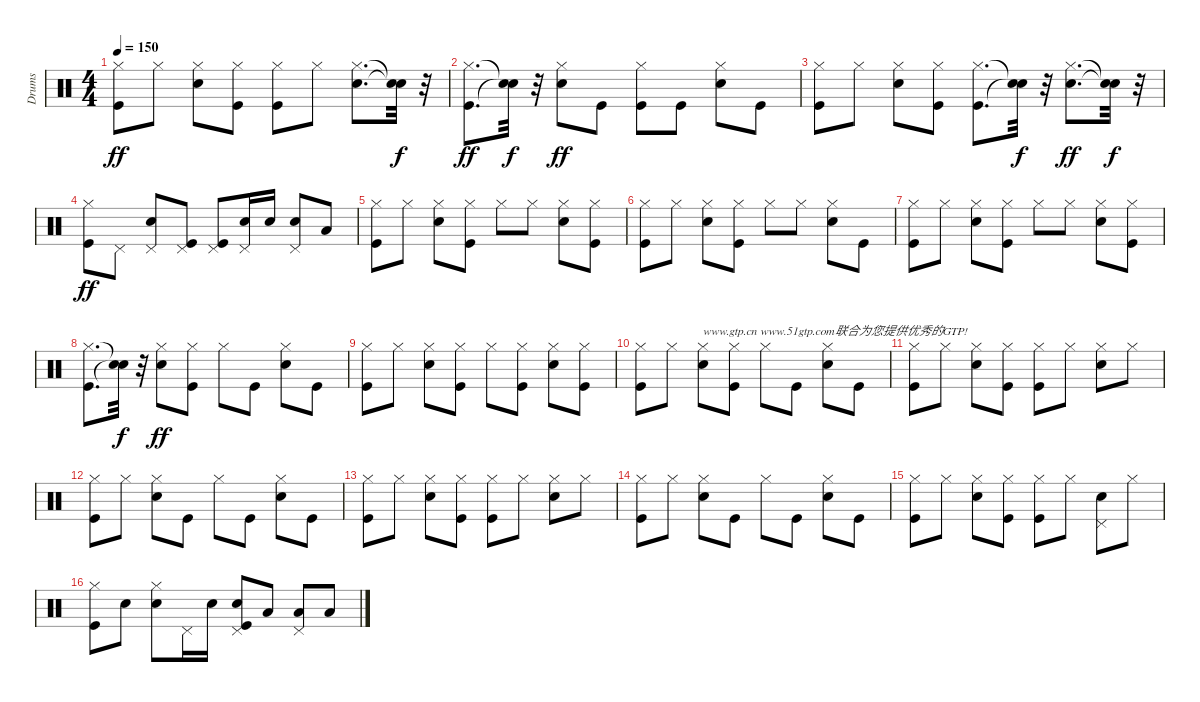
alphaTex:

\track ("Drums" "Drums") {instrument percussion}
\staff {score}
\articulation defaults
\ts (4 4)
\tempo 150
\clef neutral
\ks c
("Kick (hit)" "Hi-Hat (closed)").8{dy ff} "Hi-Hat (closed)".8 ("Snare (hit) 2" "Hi-Hat (closed)").8 ("Kick (hit)" "Hi-Hat (closed)").8 ("Kick (hit)" "Hi-Hat (closed)").8 "Hi-Hat (closed)".8 ("Snare (hit) 2" "Hi-Hat (closed)").8{d} ("Snare (hit)"{t} "Snare (hit)"{t}).32{dy f} r.32 |
("Kick (hit)" "Hi-Hat (closed)").8{d dy ff} ("Snare (hit)"{t} "Snare (hit)"{t}).32{dy f} r.32 ("Snare (hit) 2" "Hi-Hat (closed)").8{dy ff} "Kick (hit)".8 ("Kick (hit)" "Hi-Hat (closed)").8 "Kick (hit)".8 ("Snare (hit) 2" "Hi-Hat (closed)").8 "Kick (hit)".8 |
("Kick (hit)" "Hi-Hat (closed)").8 "Hi-Hat (closed)".8 ("Snare (hit) 2" "Hi-Hat (closed)").8 ("Kick (hit)" "Hi-Hat (closed)").8 ("Kick (hit)" "Hi-Hat (closed)").8{d} ("Snare (hit)"{t} "Snare (hit)"{t}).32{dy f} r.32 ("Snare (hit) 2" "Hi-Hat (closed)").8{d dy ff} ("Snare (hit)"{t} "Snare (hit)"{t}).32{dy f} r.32 |
("Kick (hit)" "Hi-Hat (closed)").8{dy ff} "Pedal Hi-Hat (hit)".8 ("Snare (hit) 2" "Pedal Hi-Hat (hit)").8 ("Kick (hit)" "Pedal Hi-Hat (hit)").8 ("Kick (hit)" "Pedal Hi-Hat (hit)").8 ("Snare (hit) 2" "Pedal Hi-Hat (hit)").16 "Snare (hit) 2".16 ("Snare (hit) 2" "Pedal Hi-Hat (hit)").8 "Low Floor Tom (hit)".8 |
("Kick (hit)" "Hi-Hat (closed)").8 "Hi-Hat (closed)".8 ("Snare (hit) 2" "Hi-Hat (closed)").8 ("Kick (hit)" "Hi-Hat (closed)").8 "Hi-Hat (closed)".8 "Hi-Hat (closed)".8 ("Snare (hit) 2" "Hi-Hat (closed)").8 ("Kick (hit)" "Hi-Hat (closed)").8 |
("Kick (hit)" "Hi-Hat (closed)").8 "Hi-Hat (closed)".8 ("Snare (hit) 2" "Hi-Hat (closed)").8 ("Kick (hit)" "Hi-Hat (closed)").8 "Hi-Hat (closed)".8 "Hi-Hat (closed)".8 ("Snare (hit) 2" "Hi-Hat (closed)").8 "Kick (hit)".8 |
("Kick (hit)" "Hi-Hat (closed)").8 "Hi-Hat (closed)".8 ("Snare (hit) 2" "Hi-Hat (closed)").8 ("Kick (hit)" "Hi-Hat (closed)").8 "Hi-Hat (closed)".8 "Hi-Hat (closed)".8 ("Snare (hit) 2" "Hi-Hat (closed)").8 ("Kick (hit)" "Hi-Hat (closed)").8 |
("Kick (hit)" "Hi-Hat (closed)").8{d} ("Snare (hit)"{t} "Snare (hit)"{t}).32{dy f} r.32 ("Snare (hit) 2" "Hi-Hat (closed)").8{dy ff} ("Kick (hit)" "Hi-Hat (closed)").8 "Hi-Hat (closed)".8 "Kick (hit)".8 ("Snare (hit) 2" "Hi-Hat (closed)").8 "Kick (hit)".8 |
("Kick (hit)" "Hi-Hat (closed)").8 "Hi-Hat (closed)".8 ("Snare (hit) 2" "Hi-Hat (closed)").8 ("Kick (hit)" "Hi-Hat (closed)").8 "Hi-Hat (closed)".8 ("Kick (hit)" "Hi-Hat (closed)").8 ("Snare (hit) 2" "Hi-Hat (closed)").8 ("Kick (hit)" "Hi-Hat (closed)").8 |
("Kick (hit)" "Hi-Hat (closed)").8 "Hi-Hat (closed)".8 ("Snare (hit) 2" "Hi-Hat (closed)").8{txt "www.gtp.cn www.51gtp.com联合为您提供优秀的GTP!"} ("Kick (hit)" "Hi-Hat (closed)").8 "Hi-Hat (closed)".8 "Kick (hit)".8 ("Snare (hit) 2" "Hi-Hat (closed)").8 "Kick (hit)".8 |
("Kick (hit)" "Hi-Hat (closed)").8 "Hi-Hat (closed)".8 ("Snare (hit) 2" "Hi-Hat (closed)").8 ("Kick (hit)" "Hi-Hat (closed)").8 ("Kick (hit)" "Hi-Hat (closed)").8 "Hi-Hat (closed)".8 ("Snare (hit) 2" "Hi-Hat (closed)").8 "Hi-Hat (closed)".8 |
("Kick (hit)" "Hi-Hat (closed)").8 "Hi-Hat (closed)".8 ("Snare (hit) 2" "Hi-Hat (closed)").8 "Kick (hit)".8 "Hi-Hat (closed)".8 "Kick (hit)".8 ("Snare (hit) 2" "Hi-Hat (closed)").8 "Kick (hit)".8 |
("Kick (hit)" "Hi-Hat (closed)").8 "Hi-Hat (closed)".8 ("Snare (hit) 2" "Hi-Hat (closed)").8 ("Kick (hit)" "Hi-Hat (closed)").8 ("Kick (hit)" "Hi-Hat (closed)").8 "Hi-Hat (closed)".8 ("Snare (hit) 2" "Hi-Hat (closed)").8 "Hi-Hat (closed)".8 |
("Kick (hit)" "Hi-Hat (closed)").8 "Hi-Hat (closed)".8 ("Snare (hit) 2" "Hi-Hat (closed)").8 "Kick (hit)".8 "Hi-Hat (closed)".8 "Kick (hit)".8 ("Snare (hit) 2" "Hi-Hat (closed)").8 "Kick (hit)".8 |
("Kick (hit)" "Hi-Hat (closed)").8 "Hi-Hat (closed)".8 ("Snare (hit) 2" "Hi-Hat (closed)").8 ("Kick (hit)" "Hi-Hat (closed)").8 ("Kick (hit)" "Hi-Hat (closed)").8 "Hi-Hat (closed)".8 ("Snare (hit) 2" "Pedal Hi-Hat (hit)").8 "Hi-Hat (closed)".8 |
("Kick (hit)" "Hi-Hat (closed)").8 "Snare (hit) 2".8 ("Snare (hit) 2" "Hi-Hat (closed)").8 "Pedal Hi-Hat (hit)".16 "Snare (hit) 2".16 ("Kick (hit)" "Snare (hit) 2" "Pedal Hi-Hat (hit)").8 "Low Tom (hit)".8 ("Low Floor Tom (hit)" "Pedal Hi-Hat (hit)").8 "Low Floor Tom (hit)".8
